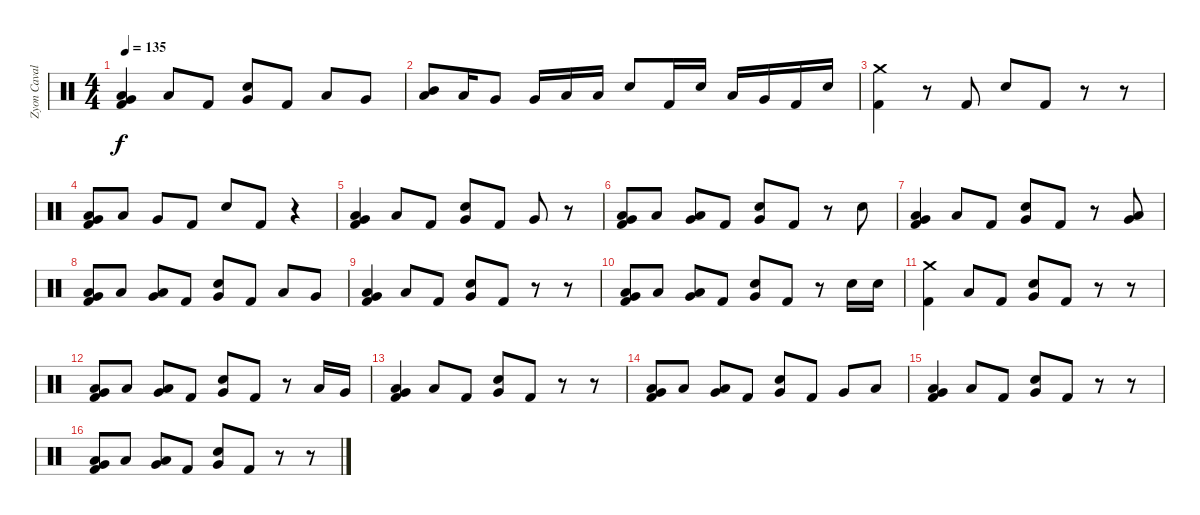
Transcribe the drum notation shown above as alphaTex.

\track ("Zyon Cavalera" "Zyon Caval") {instrument percussion}
\staff {score}
\articulation defaults
\ts (4 4)
\tempo 135
\clef neutral
\ks c
("Very Low Tom (hit)" "Low Floor Tom (hit)" "Kick (hit) 2").4{dy f} "Low Floor Tom (hit)".8 "Kick (hit) 2".8 ("Very Low Tom (hit)" "Snare (hit) 2").8 "Kick (hit) 2".8 "Low Tom (hit)".8 "Very Low Tom (hit)".8 |
("Mid Tom (hit)" "Low Tom (hit)").8 "Low Tom (hit)".16 "Very Low Tom (hit)".8 "Very Low Tom (hit)".16 "Low Floor Tom (hit)".16 "Low Floor Tom (hit)".16 "Snare (hit) 2".8 "Kick (hit) 2".16 "Snare (hit) 2".16 "Low Tom (hit)".16 "Very Low Tom (hit)".16 "Kick (hit) 2".16 "Snare (hit) 2".16 |
("Crash medium (hit)" "Kick (hit) 2").4 r.8 "Kick (hit) 2".8 "Snare (hit) 2".8 "Kick (hit) 2".8 r.8 r.8 |
("Very Low Tom (hit)" "Low Floor Tom (hit)" "Kick (hit) 2").8 "Low Floor Tom (hit)".8 "Very Low Tom (hit)".8 "Kick (hit) 2".8 "Snare (hit) 2".8 "Kick (hit) 2".8 r.4 |
("Very Low Tom (hit)" "Low Floor Tom (hit)" "Kick (hit) 2").4 "Low Floor Tom (hit)".8 "Kick (hit) 2".8 ("Very Low Tom (hit)" "Snare (hit) 2").8 "Kick (hit) 2".8 "Very Low Tom (hit)".8 r.8 |
("Very Low Tom (hit)" "Low Floor Tom (hit)" "Kick (hit) 2").8 "Low Floor Tom (hit)".8 ("Very Low Tom (hit)" "Low Floor Tom (hit)").8 "Kick (hit) 2".8 ("Very Low Tom (hit)" "Snare (hit) 2").8 "Kick (hit) 2".8 r.8 "Snare (hit) 2".8 |
("Very Low Tom (hit)" "Low Floor Tom (hit)" "Kick (hit) 2").4 "Low Floor Tom (hit)".8 "Kick (hit) 2".8 ("Very Low Tom (hit)" "Snare (hit) 2").8 "Kick (hit) 2".8 r.8 ("Very Low Tom (hit)" "Low Floor Tom (hit)").8 |
("Very Low Tom (hit)" "Low Floor Tom (hit)" "Kick (hit) 2").8 "Low Floor Tom (hit)".8 ("Very Low Tom (hit)" "Low Floor Tom (hit)").8 "Kick (hit) 2".8 ("Very Low Tom (hit)" "Snare (hit) 2").8 "Kick (hit) 2".8 "Low Tom (hit)".8 "Very Low Tom (hit)".8 |
("Very Low Tom (hit)" "Low Floor Tom (hit)" "Kick (hit) 2").4 "Low Floor Tom (hit)".8 "Kick (hit) 2".8 ("Very Low Tom (hit)" "Snare (hit) 2").8 "Kick (hit) 2".8 r.8 r.8 |
("Very Low Tom (hit)" "Low Floor Tom (hit)" "Kick (hit) 2").8 "Low Floor Tom (hit)".8 ("Very Low Tom (hit)" "Low Floor Tom (hit)").8 "Kick (hit) 2".8 ("Very Low Tom (hit)" "Snare (hit) 2").8 "Kick (hit) 2".8 r.8 "Snare (hit) 2".16 "Snare (hit) 2".16 |
("Crash medium (hit)" "Kick (hit) 2").4 "Low Floor Tom (hit)".8 "Kick (hit) 2".8 ("Very Low Tom (hit)" "Snare (hit) 2").8 "Kick (hit) 2".8 r.8 r.8 |
("Very Low Tom (hit)" "Low Floor Tom (hit)" "Kick (hit) 2").8 "Low Floor Tom (hit)".8 ("Very Low Tom (hit)" "Low Floor Tom (hit)").8 "Kick (hit) 2".8 ("Very Low Tom (hit)" "Snare (hit) 2").8 "Kick (hit) 2".8 r.8 "Low Tom (hit)".16 "Very Low Tom (hit)".16 |
("Very Low Tom (hit)" "Low Floor Tom (hit)" "Kick (hit) 2").4 "Low Floor Tom (hit)".8 "Kick (hit) 2".8 ("Very Low Tom (hit)" "Snare (hit) 2").8 "Kick (hit) 2".8 r.8 r.8 |
("Very Low Tom (hit)" "Low Floor Tom (hit)" "Kick (hit) 2").8 "Low Floor Tom (hit)".8 ("Very Low Tom (hit)" "Low Floor Tom (hit)").8 "Kick (hit) 2".8 ("Very Low Tom (hit)" "Snare (hit) 2").8 "Kick (hit) 2".8 "Very Low Tom (hit)".8 "Low Floor Tom (hit)".8 |
("Very Low Tom (hit)" "Low Floor Tom (hit)" "Kick (hit) 2").4 "Low Floor Tom (hit)".8 "Kick (hit) 2".8 ("Very Low Tom (hit)" "Snare (hit) 2").8 "Kick (hit) 2".8 r.8 r.8 |
("Very Low Tom (hit)" "Low Floor Tom (hit)" "Kick (hit) 2").8 "Low Floor Tom (hit)".8 ("Very Low Tom (hit)" "Low Floor Tom (hit)").8 "Kick (hit) 2".8 ("Very Low Tom (hit)" "Snare (hit) 2").8 "Kick (hit) 2".8 r.8 r.8
